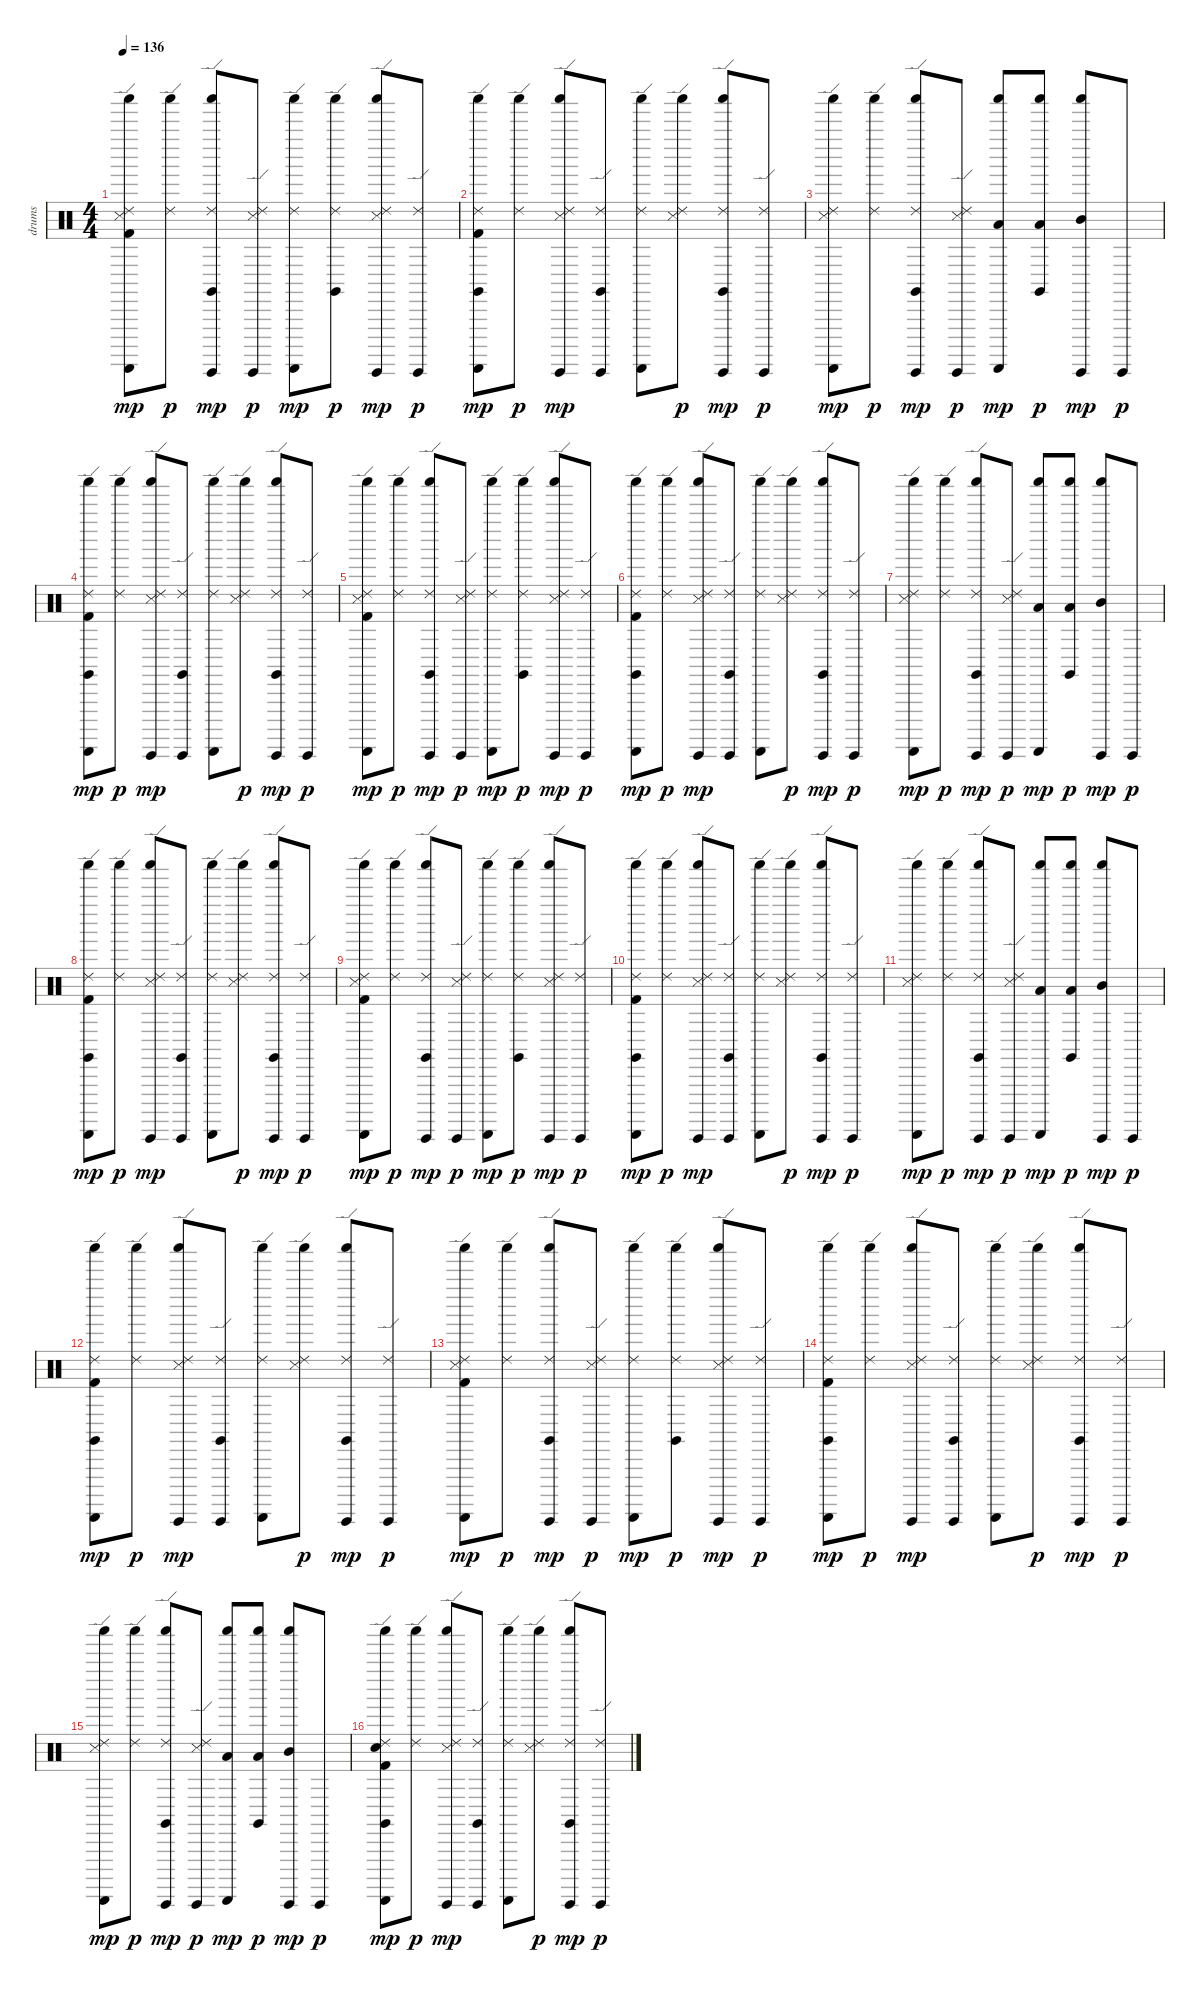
\track ("drums" "drums") {instrument percussion}
\staff {score}
\articulation defaults
\ts (4 4)
\tempo 136
\clef neutral
\ks c
("Kick (hit) 2" "Snare (side stick) 3" "Ride (edge) 2" "Guiro (scrap-return)" "Shaker (hit)").8{dy mp} ("Ride (edge) 2" "Shaker (hit)").8{dy p} ("Ride (edge) 2" "Guiro (hit)" "Claves (hit)" "Shaker (hit)").8{dy mp} ("Snare (side stick) 3" "Ride (edge) 2" "Guiro (hit)").8{dy p} ("Ride (edge) 2" "Guiro (scrap-return)" "Shaker (hit)").8{dy mp} ("Ride (edge) 2" "Claves (hit)" "Shaker (hit)").8{dy p} ("Snare (side stick) 3" "Ride (edge) 2" "Guiro (hit)" "Shaker (hit)").8{dy mp} ("Ride (edge) 2" "Guiro (hit)").8{dy p} |
("Kick (hit) 2" "Ride (edge) 2" "Guiro (scrap-return)" "Claves (hit)" "Shaker (hit)").8{dy mp} ("Ride (edge) 2" "Shaker (hit)").8{dy p} ("Snare (side stick) 3" "Ride (edge) 2" "Guiro (hit)" "Shaker (hit)").8{dy mp} ("Ride (edge) 2" "Guiro (hit)" "Claves (hit)").8 ("Ride (edge) 2" "Guiro (scrap-return)" "Shaker (hit)").8 ("Snare (side stick) 3" "Ride (edge) 2" "Shaker (hit)").8{dy p} ("Ride (edge) 2" "Guiro (hit)" "Claves (hit)" "Shaker (hit)").8{dy mp} ("Ride (edge) 2" "Guiro (hit)").8{dy p} |
("Snare (side stick) 3" "Ride (edge) 2" "Guiro (scrap-return)" "Shaker (hit)").8{dy mp} ("Ride (edge) 2" "Shaker (hit)").8{dy p} ("Ride (edge) 2" "Guiro (hit)" "Claves (hit)" "Shaker (hit)").8{dy mp} ("Snare (side stick) 3" "Ride (edge) 2" "Guiro (hit)").8{dy p} ("Low Tom (hit)" "Guiro (scrap-return)" "Shaker (hit)").8{dy mp} ("Low Tom (hit)" "Claves (hit)" "Shaker (hit)").8{dy p} ("Mid Tom (hit)" "Guiro (hit)" "Shaker (hit)").8{dy mp} "Guiro (hit)".8{dy p} |
("Kick (hit) 2" "Ride (edge) 2" "Guiro (scrap-return)" "Claves (hit)" "Shaker (hit)").8{dy mp} ("Ride (edge) 2" "Shaker (hit)").8{dy p} ("Snare (side stick) 3" "Ride (edge) 2" "Guiro (hit)" "Shaker (hit)").8{dy mp} ("Ride (edge) 2" "Guiro (hit)" "Claves (hit)").8 ("Ride (edge) 2" "Guiro (scrap-return)" "Shaker (hit)").8 ("Snare (side stick) 3" "Ride (edge) 2" "Shaker (hit)").8{dy p} ("Ride (edge) 2" "Guiro (hit)" "Claves (hit)" "Shaker (hit)").8{dy mp} ("Ride (edge) 2" "Guiro (hit)").8{dy p} |
("Kick (hit) 2" "Snare (side stick) 3" "Ride (edge) 2" "Guiro (scrap-return)" "Shaker (hit)").8{dy mp} ("Ride (edge) 2" "Shaker (hit)").8{dy p} ("Ride (edge) 2" "Guiro (hit)" "Claves (hit)" "Shaker (hit)").8{dy mp} ("Snare (side stick) 3" "Ride (edge) 2" "Guiro (hit)").8{dy p} ("Ride (edge) 2" "Guiro (scrap-return)" "Shaker (hit)").8{dy mp} ("Ride (edge) 2" "Claves (hit)" "Shaker (hit)").8{dy p} ("Snare (side stick) 3" "Ride (edge) 2" "Guiro (hit)" "Shaker (hit)").8{dy mp} ("Ride (edge) 2" "Guiro (hit)").8{dy p} |
("Kick (hit) 2" "Ride (edge) 2" "Guiro (scrap-return)" "Claves (hit)" "Shaker (hit)").8{dy mp} ("Ride (edge) 2" "Shaker (hit)").8{dy p} ("Snare (side stick) 3" "Ride (edge) 2" "Guiro (hit)" "Shaker (hit)").8{dy mp} ("Ride (edge) 2" "Guiro (hit)" "Claves (hit)").8 ("Ride (edge) 2" "Guiro (scrap-return)" "Shaker (hit)").8 ("Snare (side stick) 3" "Ride (edge) 2" "Shaker (hit)").8{dy p} ("Ride (edge) 2" "Guiro (hit)" "Claves (hit)" "Shaker (hit)").8{dy mp} ("Ride (edge) 2" "Guiro (hit)").8{dy p} |
("Snare (side stick) 3" "Ride (edge) 2" "Guiro (scrap-return)" "Shaker (hit)").8{dy mp} ("Ride (edge) 2" "Shaker (hit)").8{dy p} ("Ride (edge) 2" "Guiro (hit)" "Claves (hit)" "Shaker (hit)").8{dy mp} ("Snare (side stick) 3" "Ride (edge) 2" "Guiro (hit)").8{dy p} ("Low Tom (hit)" "Guiro (scrap-return)" "Shaker (hit)").8{dy mp} ("Low Tom (hit)" "Claves (hit)" "Shaker (hit)").8{dy p} ("Mid Tom (hit)" "Guiro (hit)" "Shaker (hit)").8{dy mp} "Guiro (hit)".8{dy p} |
("Kick (hit) 2" "Ride (edge) 2" "Guiro (scrap-return)" "Claves (hit)" "Shaker (hit)").8{dy mp} ("Ride (edge) 2" "Shaker (hit)").8{dy p} ("Snare (side stick) 3" "Ride (edge) 2" "Guiro (hit)" "Shaker (hit)").8{dy mp} ("Ride (edge) 2" "Guiro (hit)" "Claves (hit)").8 ("Ride (edge) 2" "Guiro (scrap-return)" "Shaker (hit)").8 ("Snare (side stick) 3" "Ride (edge) 2" "Shaker (hit)").8{dy p} ("Ride (edge) 2" "Guiro (hit)" "Claves (hit)" "Shaker (hit)").8{dy mp} ("Ride (edge) 2" "Guiro (hit)").8{dy p} |
("Kick (hit) 2" "Snare (side stick) 3" "Ride (edge) 2" "Guiro (scrap-return)" "Shaker (hit)").8{dy mp} ("Ride (edge) 2" "Shaker (hit)").8{dy p} ("Ride (edge) 2" "Guiro (hit)" "Claves (hit)" "Shaker (hit)").8{dy mp} ("Snare (side stick) 3" "Ride (edge) 2" "Guiro (hit)").8{dy p} ("Ride (edge) 2" "Guiro (scrap-return)" "Shaker (hit)").8{dy mp} ("Ride (edge) 2" "Claves (hit)" "Shaker (hit)").8{dy p} ("Snare (side stick) 3" "Ride (edge) 2" "Guiro (hit)" "Shaker (hit)").8{dy mp} ("Ride (edge) 2" "Guiro (hit)").8{dy p} |
("Kick (hit) 2" "Ride (edge) 2" "Guiro (scrap-return)" "Claves (hit)" "Shaker (hit)").8{dy mp} ("Ride (edge) 2" "Shaker (hit)").8{dy p} ("Snare (side stick) 3" "Ride (edge) 2" "Guiro (hit)" "Shaker (hit)").8{dy mp} ("Ride (edge) 2" "Guiro (hit)" "Claves (hit)").8 ("Ride (edge) 2" "Guiro (scrap-return)" "Shaker (hit)").8 ("Snare (side stick) 3" "Ride (edge) 2" "Shaker (hit)").8{dy p} ("Ride (edge) 2" "Guiro (hit)" "Claves (hit)" "Shaker (hit)").8{dy mp} ("Ride (edge) 2" "Guiro (hit)").8{dy p} |
("Snare (side stick) 3" "Ride (edge) 2" "Guiro (scrap-return)" "Shaker (hit)").8{dy mp} ("Ride (edge) 2" "Shaker (hit)").8{dy p} ("Ride (edge) 2" "Guiro (hit)" "Claves (hit)" "Shaker (hit)").8{dy mp} ("Snare (side stick) 3" "Ride (edge) 2" "Guiro (hit)").8{dy p} ("Low Tom (hit)" "Guiro (scrap-return)" "Shaker (hit)").8{dy mp} ("Low Tom (hit)" "Claves (hit)" "Shaker (hit)").8{dy p} ("Mid Tom (hit)" "Guiro (hit)" "Shaker (hit)").8{dy mp} "Guiro (hit)".8{dy p} |
("Kick (hit) 2" "Ride (edge) 2" "Guiro (scrap-return)" "Claves (hit)" "Shaker (hit)").8{dy mp} ("Ride (edge) 2" "Shaker (hit)").8{dy p} ("Snare (side stick) 3" "Ride (edge) 2" "Guiro (hit)" "Shaker (hit)").8{dy mp} ("Ride (edge) 2" "Guiro (hit)" "Claves (hit)").8 ("Ride (edge) 2" "Guiro (scrap-return)" "Shaker (hit)").8 ("Snare (side stick) 3" "Ride (edge) 2" "Shaker (hit)").8{dy p} ("Ride (edge) 2" "Guiro (hit)" "Claves (hit)" "Shaker (hit)").8{dy mp} ("Ride (edge) 2" "Guiro (hit)").8{dy p} |
("Kick (hit) 2" "Snare (side stick) 3" "Ride (edge) 2" "Guiro (scrap-return)" "Shaker (hit)").8{dy mp} ("Ride (edge) 2" "Shaker (hit)").8{dy p} ("Ride (edge) 2" "Guiro (hit)" "Claves (hit)" "Shaker (hit)").8{dy mp} ("Snare (side stick) 3" "Ride (edge) 2" "Guiro (hit)").8{dy p} ("Ride (edge) 2" "Guiro (scrap-return)" "Shaker (hit)").8{dy mp} ("Ride (edge) 2" "Claves (hit)" "Shaker (hit)").8{dy p} ("Snare (side stick) 3" "Ride (edge) 2" "Guiro (hit)" "Shaker (hit)").8{dy mp} ("Ride (edge) 2" "Guiro (hit)").8{dy p} |
("Kick (hit) 2" "Ride (edge) 2" "Guiro (scrap-return)" "Claves (hit)" "Shaker (hit)").8{dy mp} ("Ride (edge) 2" "Shaker (hit)").8{dy p} ("Snare (side stick) 3" "Ride (edge) 2" "Guiro (hit)" "Shaker (hit)").8{dy mp} ("Ride (edge) 2" "Guiro (hit)" "Claves (hit)").8 ("Ride (edge) 2" "Guiro (scrap-return)" "Shaker (hit)").8 ("Snare (side stick) 3" "Ride (edge) 2" "Shaker (hit)").8{dy p} ("Ride (edge) 2" "Guiro (hit)" "Claves (hit)" "Shaker (hit)").8{dy mp} ("Ride (edge) 2" "Guiro (hit)").8{dy p} |
("Snare (side stick) 3" "Ride (edge) 2" "Guiro (scrap-return)" "Shaker (hit)").8{dy mp} ("Ride (edge) 2" "Shaker (hit)").8{dy p} ("Ride (edge) 2" "Guiro (hit)" "Claves (hit)" "Shaker (hit)").8{dy mp} ("Snare (side stick) 3" "Ride (edge) 2" "Guiro (hit)").8{dy p} ("Low Tom (hit)" "Guiro (scrap-return)" "Shaker (hit)").8{dy mp} ("Low Tom (hit)" "Claves (hit)" "Shaker (hit)").8{dy p} ("Mid Tom (hit)" "Guiro (hit)" "Shaker (hit)").8{dy mp} "Guiro (hit)".8{dy p} |
("Kick (hit) 2" "Snare (hit) 2" "Ride (edge) 2" "Guiro (scrap-return)" "Claves (hit)" "Shaker (hit)").8{dy mp} ("Ride (edge) 2" "Shaker (hit)").8{dy p} ("Snare (side stick) 3" "Ride (edge) 2" "Guiro (hit)" "Shaker (hit)").8{dy mp} ("Ride (edge) 2" "Guiro (hit)" "Claves (hit)").8 ("Ride (edge) 2" "Guiro (scrap-return)" "Shaker (hit)").8 ("Snare (side stick) 3" "Ride (edge) 2" "Shaker (hit)").8{dy p} ("Ride (edge) 2" "Guiro (hit)" "Claves (hit)" "Shaker (hit)").8{dy mp} ("Ride (edge) 2" "Guiro (hit)").8{dy p}
